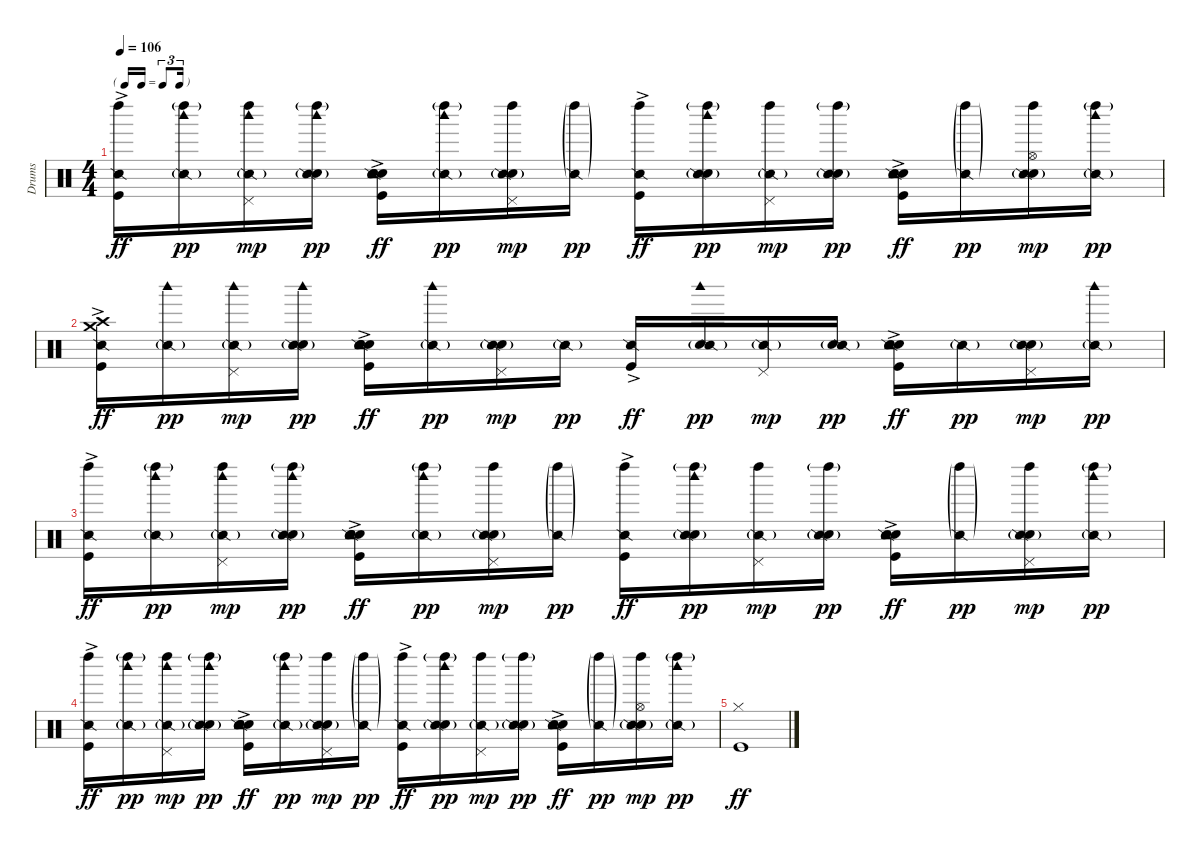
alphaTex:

\track ("Drums" "Drums") {instrument percussion}
\staff {score}
\articulation defaults
\ts (4 4)
\tf triplet16th
\tempo 106
\clef neutral
\ks c
("Kick (hit)"{ac} "Left Maraca (hit)" "Snare (side stick) 2").16{dy ff} ("Left Maraca (hit)"{g} "Woodblock high (hit)" "Snare (side stick) 2"{g}).16{dy pp} ("Left Maraca (hit)" "Pedal Hi-Hat (hit)" "Woodblock high (hit)" "Snare (side stick) 2"{g}).16{dy mp} ("Hand Clap (hit)" "Left Maraca (hit)"{g} "Woodblock high (hit)" "Snare (side stick) 2"{g}).16{dy pp} ("Kick (hit)"{ac} "Hand Clap (hit)" "Snare (hit) 2"{ac} "Electric Snare (hit)" "Tambourine (hit)" "Snare (side stick) 2").16{dy ff} ("Left Maraca (hit)"{g} "Woodblock high (hit)" "Snare (side stick) 2"{g}).16{dy pp} ("Hand Clap (hit)" "Left Maraca (hit)" "Pedal Hi-Hat (hit)" "Snare (side stick) 2"{g}).16{dy mp} ("Left Maraca (hit)"{g} "Snare (side stick) 2"{g}).16{dy pp} ("Kick (hit)"{ac} "Left Maraca (hit)" "Snare (side stick) 2").16{dy ff} ("Hand Clap (hit)" "Left Maraca (hit)"{g} "Woodblock high (hit)" "Snare (side stick) 2"{g}).16{dy pp} ("Left Maraca (hit)" "Pedal Hi-Hat (hit)" "Snare (side stick) 2"{g}).16{dy mp} ("Hand Clap (hit)" "Left Maraca (hit)"{g} "Snare (side stick) 2"{g}).16{dy pp} ("Kick (hit)"{ac} "Snare (hit) 2"{ac} "Electric Snare (hit)" "Tambourine (hit)" "Snare (side stick) 2").16{dy ff} ("Left Maraca (hit)"{g} "Snare (side stick) 2"{g}).16{dy pp} ("Hand Clap (hit)" "Left Maraca (hit)" "Hi-Hat (open)" "Snare (side stick) 2"{g}).16{dy mp} ("Left Maraca (hit)"{g} "Woodblock high (hit)" "Snare (side stick) 2"{g}).16{dy pp} |
("Kick (hit)"{ac} "Crash high (hit)" "Crash medium (hit)" "Snare (side stick) 2").16{dy ff} ("Woodblock high (hit)" "Snare (side stick) 2"{g}).16{dy pp} ("Pedal Hi-Hat (hit)" "Woodblock high (hit)" "Snare (side stick) 2"{g}).16{dy mp} ("Hand Clap (hit)" "Woodblock high (hit)" "Snare (side stick) 2"{g}).16{dy pp} ("Kick (hit)"{ac} "Hand Clap (hit)" "Snare (hit) 2"{ac} "Electric Snare (hit)" "Tambourine (hit)" "Snare (side stick) 2").16{dy ff} ("Woodblock high (hit)" "Snare (side stick) 2"{g}).16{dy pp} ("Hand Clap (hit)" "Pedal Hi-Hat (hit)" "Snare (side stick) 2"{g}).16{dy mp} "Snare (side stick) 2"{g}.16{dy pp} ("Kick (hit)"{ac} "Snare (side stick) 2").16{dy ff} ("Hand Clap (hit)" "Woodblock high (hit)" "Snare (side stick) 2"{g}).16{dy pp} ("Pedal Hi-Hat (hit)" "Snare (side stick) 2"{g}).16{dy mp} ("Hand Clap (hit)" "Snare (side stick) 2"{g}).16{dy pp} ("Kick (hit)"{ac} "Snare (hit) 2"{ac} "Electric Snare (hit)" "Tambourine (hit)" "Snare (side stick) 2").16{dy ff} "Snare (side stick) 2"{g}.16{dy pp} ("Hand Clap (hit)" "Pedal Hi-Hat (hit)" "Snare (side stick) 2"{g}).16{dy mp} ("Woodblock high (hit)" "Snare (side stick) 2"{g}).16{dy pp} |
("Kick (hit)"{ac} "Left Maraca (hit)" "Snare (side stick) 2").16{dy ff} ("Left Maraca (hit)"{g} "Woodblock high (hit)" "Snare (side stick) 2"{g}).16{dy pp} ("Left Maraca (hit)" "Pedal Hi-Hat (hit)" "Woodblock high (hit)" "Snare (side stick) 2"{g}).16{dy mp} ("Hand Clap (hit)" "Left Maraca (hit)"{g} "Woodblock high (hit)" "Snare (side stick) 2"{g}).16{dy pp} ("Kick (hit)"{ac} "Hand Clap (hit)" "Snare (hit) 2"{ac} "Electric Snare (hit)" "Tambourine (hit)" "Snare (side stick) 2").16{dy ff} ("Left Maraca (hit)"{g} "Woodblock high (hit)" "Snare (side stick) 2"{g}).16{dy pp} ("Hand Clap (hit)" "Left Maraca (hit)" "Pedal Hi-Hat (hit)" "Snare (side stick) 2"{g}).16{dy mp} ("Left Maraca (hit)"{g} "Snare (side stick) 2"{g}).16{dy pp} ("Kick (hit)"{ac} "Left Maraca (hit)" "Snare (side stick) 2").16{dy ff} ("Hand Clap (hit)" "Left Maraca (hit)"{g} "Woodblock high (hit)" "Snare (side stick) 2"{g}).16{dy pp} ("Left Maraca (hit)" "Pedal Hi-Hat (hit)" "Snare (side stick) 2"{g}).16{dy mp} ("Hand Clap (hit)" "Left Maraca (hit)"{g} "Snare (side stick) 2"{g}).16{dy pp} ("Kick (hit)"{ac} "Snare (hit) 2"{ac} "Electric Snare (hit)" "Tambourine (hit)" "Snare (side stick) 2").16{dy ff} ("Left Maraca (hit)"{g} "Snare (side stick) 2"{g}).16{dy pp} ("Hand Clap (hit)" "Left Maraca (hit)" "Pedal Hi-Hat (hit)" "Snare (side stick) 2"{g}).16{dy mp} ("Left Maraca (hit)"{g} "Woodblock high (hit)" "Snare (side stick) 2"{g}).16{dy pp} |
("Kick (hit)"{ac} "Left Maraca (hit)" "Snare (side stick) 2").16{dy ff} ("Left Maraca (hit)"{g} "Woodblock high (hit)" "Snare (side stick) 2"{g}).16{dy pp} ("Left Maraca (hit)" "Pedal Hi-Hat (hit)" "Woodblock high (hit)" "Snare (side stick) 2"{g}).16{dy mp} ("Hand Clap (hit)" "Left Maraca (hit)"{g} "Woodblock high (hit)" "Snare (side stick) 2"{g}).16{dy pp} ("Kick (hit)"{ac} "Hand Clap (hit)" "Snare (hit) 2"{ac} "Electric Snare (hit)" "Tambourine (hit)" "Snare (side stick) 2").16{dy ff} ("Left Maraca (hit)"{g} "Woodblock high (hit)" "Snare (side stick) 2"{g}).16{dy pp} ("Hand Clap (hit)" "Left Maraca (hit)" "Pedal Hi-Hat (hit)" "Snare (side stick) 2"{g}).16{dy mp} ("Left Maraca (hit)"{g} "Snare (side stick) 2"{g}).16{dy pp} ("Kick (hit)"{ac} "Left Maraca (hit)" "Snare (side stick) 2").16{dy ff} ("Hand Clap (hit)" "Left Maraca (hit)"{g} "Woodblock high (hit)" "Snare (side stick) 2"{g}).16{dy pp} ("Left Maraca (hit)" "Pedal Hi-Hat (hit)" "Snare (side stick) 2"{g}).16{dy mp} ("Hand Clap (hit)" "Left Maraca (hit)"{g} "Snare (side stick) 2"{g}).16{dy pp} ("Kick (hit)"{ac} "Snare (hit) 2"{ac} "Electric Snare (hit)" "Tambourine (hit)" "Snare (side stick) 2").16{dy ff} ("Left Maraca (hit)"{g} "Snare (side stick) 2"{g}).16{dy pp} ("Hand Clap (hit)" "Left Maraca (hit)" "Hi-Hat (open)" "Snare (side stick) 2"{g}).16{dy mp} ("Left Maraca (hit)"{g} "Woodblock high (hit)" "Snare (side stick) 2"{g}).16{dy pp} |
("Kick (hit)" "Hi-Hat (closed)").1{dy ff}
